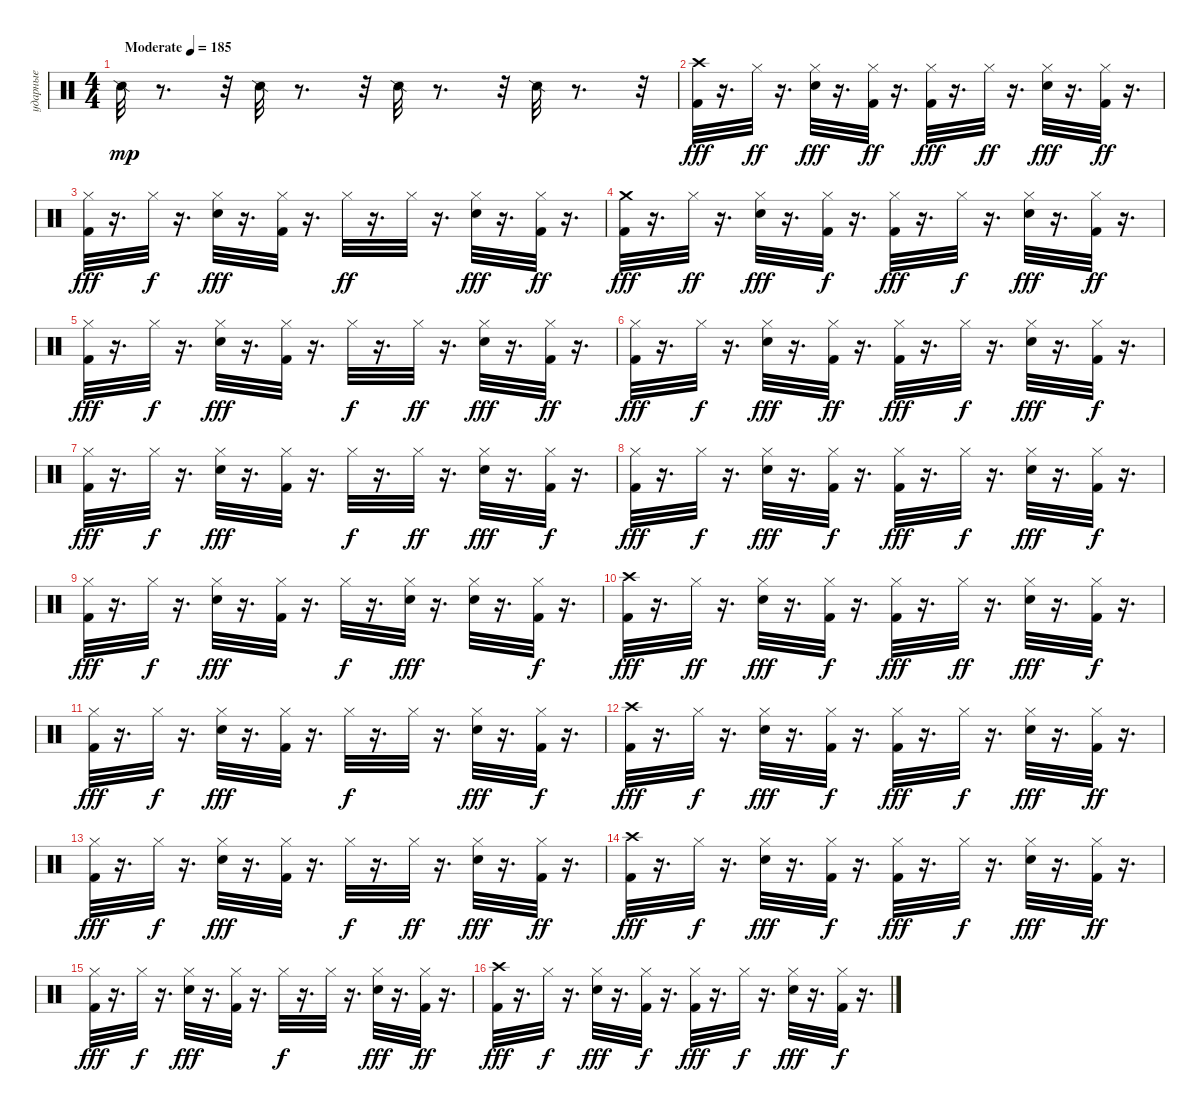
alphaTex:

\track ("ударные" "ударные") {instrument percussion}
\staff {score}
\articulation defaults
\ts (4 4)
\tempo (185 "Moderate")
\clef neutral
\ks c "Snare (side stick) 2".32{dy mp}
r.8{d} r.32 "Snare (side stick) 2".32 r.8{d} r.32 "Snare (side stick) 2".32 r.8{d} r.32 "Snare (side stick) 2".32 r.8{d} r.32 |
("Crash high (hit)" "Kick (hit) 2").32{dy fff} r.16{d} "Hi-Hat (closed)".32{dy ff} r.16{d} ("Hi-Hat (closed)" "Electric Snare (hit)").32{dy fff} r.16{d} ("Hi-Hat (closed)" "Kick (hit) 2").32{dy ff} r.16{d} ("Hi-Hat (closed)" "Kick (hit) 2").32{dy fff} r.16{d} "Hi-Hat (closed)".32{dy ff} r.16{d} ("Hi-Hat (closed)" "Electric Snare (hit)").32{dy fff} r.16{d} ("Hi-Hat (closed)" "Kick (hit) 2").32{dy ff} r.16{d} |
("Hi-Hat (closed)" "Kick (hit) 2").32{dy fff} r.16{d} "Hi-Hat (closed)".32{dy f} r.16{d} ("Hi-Hat (closed)" "Electric Snare (hit)").32{dy fff} r.16{d} ("Hi-Hat (closed)" "Kick (hit) 2").32 r.16{d} "Hi-Hat (closed)".32{dy ff} r.16{d} "Hi-Hat (closed)".32 r.16{d} ("Hi-Hat (closed)" "Electric Snare (hit)").32{dy fff} r.16{d} ("Hi-Hat (closed)" "Kick (hit) 2").32{dy ff} r.16{d} |
("Crash medium (hit)" "Kick (hit) 2").32{dy fff} r.16{d} "Hi-Hat (closed)".32{dy ff} r.16{d} ("Hi-Hat (closed)" "Electric Snare (hit)").32{dy fff} r.16{d} ("Hi-Hat (closed)" "Kick (hit) 2").32{dy f} r.16{d} ("Hi-Hat (closed)" "Kick (hit) 2").32{dy fff} r.16{d} "Hi-Hat (closed)".32{dy f} r.16{d} ("Hi-Hat (closed)" "Electric Snare (hit)").32{dy fff} r.16{d} ("Hi-Hat (closed)" "Kick (hit) 2").32{dy ff} r.16{d} |
("Hi-Hat (closed)" "Kick (hit) 2").32{dy fff} r.16{d} "Hi-Hat (closed)".32{dy f} r.16{d} ("Hi-Hat (closed)" "Electric Snare (hit)").32{dy fff} r.16{d} ("Hi-Hat (closed)" "Kick (hit) 2").32 r.16{d} "Hi-Hat (closed)".32{dy f} r.16{d} "Hi-Hat (closed)".32{dy ff} r.16{d} ("Hi-Hat (closed)" "Electric Snare (hit)").32{dy fff} r.16{d} ("Hi-Hat (closed)" "Kick (hit) 2").32{dy ff} r.16{d} |
("Hi-Hat (closed)" "Kick (hit) 2").32{dy fff} r.16{d} "Hi-Hat (closed)".32{dy f} r.16{d} ("Hi-Hat (closed)" "Electric Snare (hit)").32{dy fff} r.16{d} ("Hi-Hat (closed)" "Kick (hit) 2").32{dy ff} r.16{d} ("Hi-Hat (closed)" "Kick (hit) 2").32{dy fff} r.16{d} "Hi-Hat (closed)".32{dy f} r.16{d} ("Hi-Hat (closed)" "Electric Snare (hit)").32{dy fff} r.16{d} ("Hi-Hat (closed)" "Kick (hit) 2").32{dy f} r.16{d} |
("Hi-Hat (closed)" "Kick (hit) 2").32{dy fff} r.16{d} "Hi-Hat (closed)".32{dy f} r.16{d} ("Hi-Hat (closed)" "Electric Snare (hit)").32{dy fff} r.16{d} ("Hi-Hat (closed)" "Kick (hit) 2").32 r.16{d} "Hi-Hat (closed)".32{dy f} r.16{d} "Hi-Hat (closed)".32{dy ff} r.16{d} ("Hi-Hat (closed)" "Electric Snare (hit)").32{dy fff} r.16{d} ("Hi-Hat (closed)" "Kick (hit) 2").32{dy f} r.16{d} |
("Hi-Hat (closed)" "Kick (hit) 2").32{dy fff} r.16{d} "Hi-Hat (closed)".32{dy f} r.16{d} ("Hi-Hat (closed)" "Electric Snare (hit)").32{dy fff} r.16{d} ("Hi-Hat (closed)" "Kick (hit) 2").32{dy f} r.16{d} ("Hi-Hat (closed)" "Kick (hit) 2").32{dy fff} r.16{d} "Hi-Hat (closed)".32{dy f} r.16{d} ("Hi-Hat (closed)" "Electric Snare (hit)").32{dy fff} r.16{d} ("Hi-Hat (closed)" "Kick (hit) 2").32{dy f} r.16{d} |
("Hi-Hat (closed)" "Kick (hit) 2").32{dy fff} r.16{d} "Hi-Hat (closed)".32{dy f} r.16{d} ("Hi-Hat (closed)" "Electric Snare (hit)").32{dy fff} r.16{d} ("Hi-Hat (closed)" "Kick (hit) 2").32 r.16{d} "Hi-Hat (closed)".32{dy f} r.16{d} ("Electric Snare (hit)" "Hi-Hat (closed)").32{dy fff} r.16{d} ("Hi-Hat (closed)" "Electric Snare (hit)").32 r.16{d} ("Hi-Hat (closed)" "Kick (hit) 2").32{dy f} r.16{d} |
("Crash high (hit)" "Kick (hit) 2").32{dy fff} r.16{d} "Hi-Hat (closed)".32{dy ff} r.16{d} ("Hi-Hat (closed)" "Electric Snare (hit)").32{dy fff} r.16{d} ("Hi-Hat (closed)" "Kick (hit) 2").32{dy f} r.16{d} ("Hi-Hat (closed)" "Kick (hit) 2").32{dy fff} r.16{d} "Hi-Hat (closed)".32{dy ff} r.16{d} ("Hi-Hat (closed)" "Electric Snare (hit)").32{dy fff} r.16{d} ("Hi-Hat (closed)" "Kick (hit) 2").32{dy f} r.16{d} |
("Hi-Hat (closed)" "Kick (hit) 2").32{dy fff} r.16{d} "Hi-Hat (closed)".32{dy f} r.16{d} ("Hi-Hat (closed)" "Electric Snare (hit)").32{dy fff} r.16{d} ("Hi-Hat (closed)" "Kick (hit) 2").32 r.16{d} "Hi-Hat (closed)".32{dy f} r.16{d} "Hi-Hat (closed)".32 r.16{d} ("Hi-Hat (closed)" "Electric Snare (hit)").32{dy fff} r.16{d} ("Hi-Hat (closed)" "Kick (hit) 2").32{dy f} r.16{d} |
("Crash high (hit)" "Kick (hit) 2").32{dy fff} r.16{d} "Hi-Hat (closed)".32{dy f} r.16{d} ("Hi-Hat (closed)" "Electric Snare (hit)").32{dy fff} r.16{d} ("Hi-Hat (closed)" "Kick (hit) 2").32{dy f} r.16{d} ("Hi-Hat (closed)" "Kick (hit) 2").32{dy fff} r.16{d} "Hi-Hat (closed)".32{dy f} r.16{d} ("Hi-Hat (closed)" "Electric Snare (hit)").32{dy fff} r.16{d} ("Hi-Hat (closed)" "Kick (hit) 2").32{dy ff} r.16{d} |
("Hi-Hat (closed)" "Kick (hit) 2").32{dy fff} r.16{d} "Hi-Hat (closed)".32{dy f} r.16{d} ("Hi-Hat (closed)" "Electric Snare (hit)").32{dy fff} r.16{d} ("Hi-Hat (closed)" "Kick (hit) 2").32 r.16{d} "Hi-Hat (closed)".32{dy f} r.16{d} "Hi-Hat (closed)".32{dy ff} r.16{d} ("Hi-Hat (closed)" "Electric Snare (hit)").32{dy fff} r.16{d} ("Hi-Hat (closed)" "Kick (hit) 2").32{dy ff} r.16{d} |
("Crash high (hit)" "Kick (hit) 2").32{dy fff} r.16{d} "Hi-Hat (closed)".32{dy f} r.16{d} ("Hi-Hat (closed)" "Electric Snare (hit)").32{dy fff} r.16{d} ("Hi-Hat (closed)" "Kick (hit) 2").32{dy f} r.16{d} ("Hi-Hat (closed)" "Kick (hit) 2").32{dy fff} r.16{d} "Hi-Hat (closed)".32{dy f} r.16{d} ("Hi-Hat (closed)" "Electric Snare (hit)").32{dy fff} r.16{d} ("Hi-Hat (closed)" "Kick (hit) 2").32{dy ff} r.16{d} |
("Hi-Hat (closed)" "Kick (hit) 2").32{dy fff} r.16{d} "Hi-Hat (closed)".32{dy f} r.16{d} ("Hi-Hat (closed)" "Electric Snare (hit)").32{dy fff} r.16{d} ("Hi-Hat (closed)" "Kick (hit) 2").32 r.16{d} "Hi-Hat (closed)".32{dy f} r.16{d} "Hi-Hat (closed)".32 r.16{d} ("Hi-Hat (closed)" "Electric Snare (hit)").32{dy fff} r.16{d} ("Hi-Hat (closed)" "Kick (hit) 2").32{dy ff} r.16{d} |
("Crash high (hit)" "Kick (hit) 2").32{dy fff} r.16{d} "Hi-Hat (closed)".32{dy f} r.16{d} ("Hi-Hat (closed)" "Electric Snare (hit)").32{dy fff} r.16{d} ("Hi-Hat (closed)" "Kick (hit) 2").32{dy f} r.16{d} ("Hi-Hat (closed)" "Kick (hit) 2").32{dy fff} r.16{d} "Hi-Hat (closed)".32{dy f} r.16{d} ("Hi-Hat (closed)" "Electric Snare (hit)").32{dy fff} r.16{d} ("Hi-Hat (closed)" "Kick (hit) 2").32{dy f} r.16{d}
